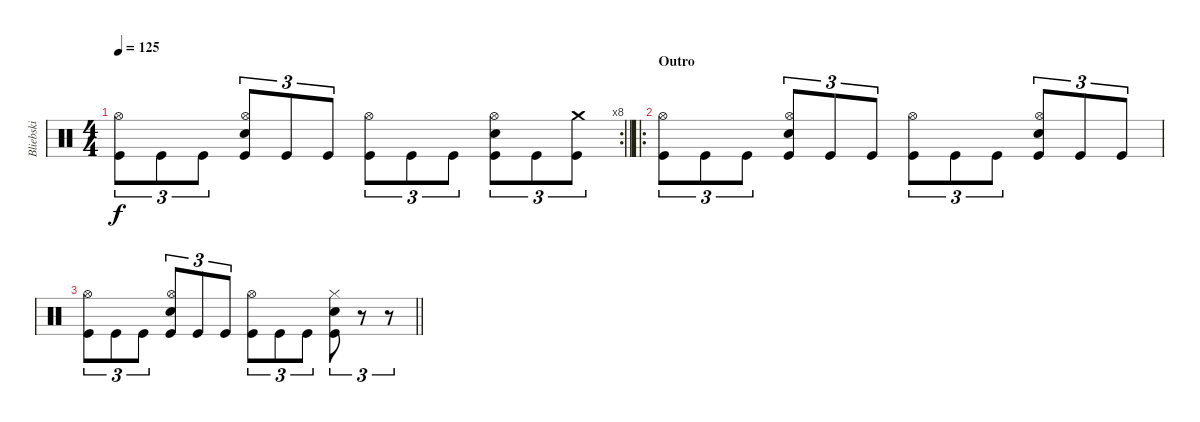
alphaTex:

\track ("Bliebski" "Bliebski") {instrument percussion}
\staff {score}
\articulation defaults
\rc 8
\ts (4 4)
\tempo 125
\clef neutral
\barLineRight lightlight
\ks c
("Kick (hit)" "Hi-Hat (open)").8{tu (3 2) dy f} "Kick (hit)".8{tu (3 2)} "Kick (hit)".8{tu (3 2)} ("Snare (hit) 2" "Kick (hit)" "Hi-Hat (open)").8{tu (3 2)} "Kick (hit)".8{tu (3 2)} "Kick (hit)".8{tu (3 2)} ("Kick (hit)" "Hi-Hat (open)").8{tu (3 2)} "Kick (hit)".8{tu (3 2)} "Kick (hit)".8{tu (3 2)} ("Snare (hit) 2" "Kick (hit)" "Hi-Hat (open)").8{tu (3 2)} "Kick (hit)".8{tu (3 2)} ("Kick (hit)" "Crash medium (hit)").8{tu (3 2)} |
\ro
\section ("" "Outro")
("Kick (hit)" "Hi-Hat (open)").8{tu (3 2)} "Kick (hit)".8{tu (3 2)} "Kick (hit)".8{tu (3 2)} ("Kick (hit)" "Hi-Hat (open)" "Snare (hit) 2").8{tu (3 2)} "Kick (hit)".8{tu (3 2)} "Kick (hit)".8{tu (3 2)} ("Kick (hit)" "Hi-Hat (open)").8{tu (3 2)} "Kick (hit)".8{tu (3 2)} "Kick (hit)".8{tu (3 2)} ("Kick (hit)" "Hi-Hat (open)" "Snare (hit) 2").8{tu (3 2)} "Kick (hit)".8{tu (3 2)} "Kick (hit)".8{tu (3 2)} |
\barLineRight lightlight
("Kick (hit)" "Hi-Hat (open)").8{tu (3 2)} "Kick (hit)".8{tu (3 2)} "Kick (hit)".8{tu (3 2)} ("Kick (hit)" "Hi-Hat (open)" "Snare (hit) 2").8{tu (3 2)} "Kick (hit)".8{tu (3 2)} "Kick (hit)".8{tu (3 2)} ("Kick (hit)" "Hi-Hat (open)").8{tu (3 2)} "Kick (hit)".8{tu (3 2)} "Kick (hit)".8{tu (3 2)} ("Hi-Hat (closed)" "Kick (hit)" "Snare (hit) 2").8{tu (3 2)} r.8{tu (3 2)} r.8{tu (3 2)}
